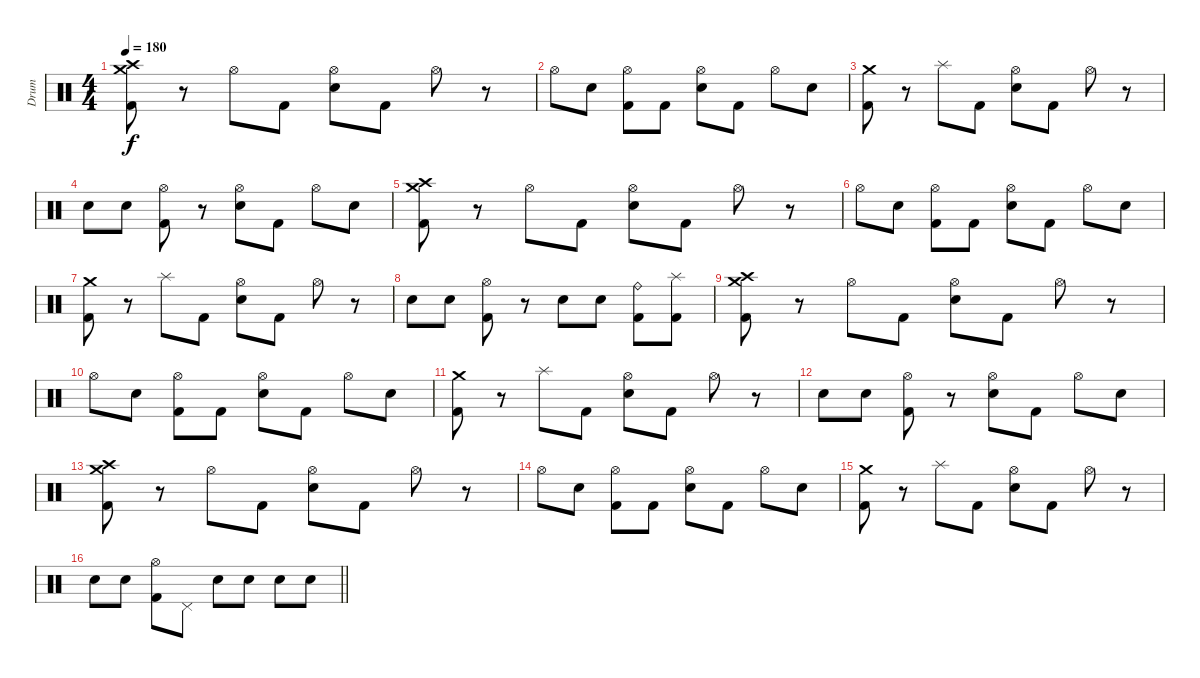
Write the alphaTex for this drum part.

\track ("Drum" "Drum") {instrument percussion}
\staff {score}
\articulation defaults
\ts (4 4)
\section ("" "")
\tempo 180
\clef neutral
\ks c
("Crash medium (hit)" "Crash high (hit)" "Kick (hit) 2").8{dy f} r.8 "Hi-Hat (open)".8 "Kick (hit) 2".8 ("Hi-Hat (open)" "Snare (hit) 2").8 "Kick (hit) 2".8 "Hi-Hat (open)".8 r.8 |
"Hi-Hat (open)".8 "Snare (hit) 2".8 ("Hi-Hat (open)" "Kick (hit) 2").8 "Kick (hit) 2".8 ("Hi-Hat (open)" "Snare (hit) 2").8 "Kick (hit) 2".8 "Hi-Hat (open)".8 "Snare (hit) 2".8 |
("Crash medium (hit)" "Kick (hit) 2").8 r.8 "Splash (hit)".8 "Kick (hit) 2".8 ("Hi-Hat (open)" "Snare (hit) 2").8 "Kick (hit) 2".8 "Hi-Hat (open)".8 r.8 |
"Snare (hit) 2".8 "Snare (hit) 2".8 ("Hi-Hat (open)" "Kick (hit) 2").8 r.8 ("Hi-Hat (open)" "Snare (hit) 2").8 "Kick (hit) 2".8 "Hi-Hat (open)".8 "Snare (hit) 2".8 |
("Crash medium (hit)" "Crash high (hit)" "Kick (hit) 2").8 r.8 "Hi-Hat (open)".8 "Kick (hit) 2".8 ("Hi-Hat (open)" "Snare (hit) 2").8 "Kick (hit) 2".8 "Hi-Hat (open)".8 r.8 |
"Hi-Hat (open)".8 "Snare (hit) 2".8 ("Hi-Hat (open)" "Kick (hit) 2").8 "Kick (hit) 2".8 ("Hi-Hat (open)" "Snare (hit) 2").8 "Kick (hit) 2".8 "Hi-Hat (open)".8 "Snare (hit) 2".8 |
("Crash medium (hit)" "Kick (hit) 2").8 r.8 "Splash (hit)".8 "Kick (hit) 2".8 ("Hi-Hat (open)" "Snare (hit) 2").8 "Kick (hit) 2".8 "Hi-Hat (open)".8 r.8 |
"Snare (hit) 2".8 "Snare (hit) 2".8 ("Hi-Hat (open)" "Kick (hit) 2").8 r.8 "Snare (hit) 2".8 "Snare (hit) 2".8 ("Ride (bell)" "Kick (hit) 2").8 ("Splash (hit)" "Kick (hit) 2").8 |
("Crash medium (hit)" "Crash high (hit)" "Kick (hit) 2").8 r.8 "Hi-Hat (open)".8 "Kick (hit) 2".8 ("Hi-Hat (open)" "Snare (hit) 2").8 "Kick (hit) 2".8 "Hi-Hat (open)".8 r.8 |
"Hi-Hat (open)".8 "Snare (hit) 2".8 ("Hi-Hat (open)" "Kick (hit) 2").8 "Kick (hit) 2".8 ("Hi-Hat (open)" "Snare (hit) 2").8 "Kick (hit) 2".8 "Hi-Hat (open)".8 "Snare (hit) 2".8 |
("Crash medium (hit)" "Kick (hit) 2").8 r.8 "Splash (hit)".8 "Kick (hit) 2".8 ("Hi-Hat (open)" "Snare (hit) 2").8 "Kick (hit) 2".8 "Hi-Hat (open)".8 r.8 |
"Snare (hit) 2".8 "Snare (hit) 2".8 ("Hi-Hat (open)" "Kick (hit) 2").8 r.8 ("Hi-Hat (open)" "Snare (hit) 2").8 "Kick (hit) 2".8 "Hi-Hat (open)".8 "Snare (hit) 2".8 |
("Crash medium (hit)" "Crash high (hit)" "Kick (hit) 2").8 r.8 "Hi-Hat (open)".8 "Kick (hit) 2".8 ("Hi-Hat (open)" "Snare (hit) 2").8 "Kick (hit) 2".8 "Hi-Hat (open)".8 r.8 |
"Hi-Hat (open)".8 "Snare (hit) 2".8 ("Hi-Hat (open)" "Kick (hit) 2").8 "Kick (hit) 2".8 ("Hi-Hat (open)" "Snare (hit) 2").8 "Kick (hit) 2".8 "Hi-Hat (open)".8 "Snare (hit) 2".8 |
("Crash medium (hit)" "Kick (hit) 2").8 r.8 "Splash (hit)".8 "Kick (hit) 2".8 ("Hi-Hat (open)" "Snare (hit) 2").8 "Kick (hit) 2".8 "Hi-Hat (open)".8 r.8 |
\barLineRight lightlight "Snare (hit) 2".8 "Snare (hit) 2".8
("Hi-Hat (open)" "Kick (hit) 2").8 "Pedal Hi-Hat (hit)".8 "Snare (hit) 2".8 "Snare (hit) 2".8 "Snare (hit) 2".8 "Snare (hit) 2".8
